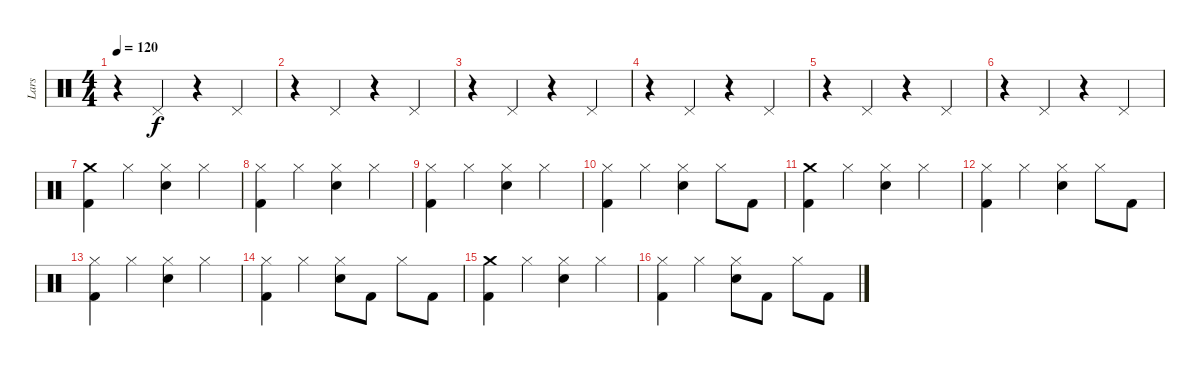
\track ("Lars" "Lars") {instrument percussion}
\staff {score}
\articulation defaults
\ts (4 4)
\tempo 120
\clef neutral
\ks c
r.4{dy f} "Pedal Hi-Hat (hit)".4 r.4 "Pedal Hi-Hat (hit)".4 |
r.4 "Pedal Hi-Hat (hit)".4 r.4 "Pedal Hi-Hat (hit)".4 |
r.4 "Pedal Hi-Hat (hit)".4 r.4 "Pedal Hi-Hat (hit)".4 |
r.4 "Pedal Hi-Hat (hit)".4 r.4 "Pedal Hi-Hat (hit)".4 |
r.4 "Pedal Hi-Hat (hit)".4 r.4 "Pedal Hi-Hat (hit)".4 |
r.4 "Pedal Hi-Hat (hit)".4 r.4 "Pedal Hi-Hat (hit)".4 |
("Kick (hit) 2" "Crash medium (hit)").4 "Hi-Hat (closed)".4 ("Snare (hit) 2" "Hi-Hat (closed)").4 "Hi-Hat (closed)".4 |
("Kick (hit) 2" "Hi-Hat (closed)").4 "Hi-Hat (closed)".4 ("Snare (hit) 2" "Hi-Hat (closed)").4 "Hi-Hat (closed)".4 |
("Kick (hit) 2" "Hi-Hat (closed)").4 "Hi-Hat (closed)".4 ("Snare (hit) 2" "Hi-Hat (closed)").4 "Hi-Hat (closed)".4 |
("Kick (hit) 2" "Hi-Hat (closed)").4 "Hi-Hat (closed)".4 ("Snare (hit) 2" "Hi-Hat (closed)").4 "Hi-Hat (closed)".8 "Kick (hit) 2".8 |
("Crash medium (hit)" "Kick (hit) 2").4 "Hi-Hat (closed)".4 ("Snare (hit) 2" "Hi-Hat (closed)").4 "Hi-Hat (closed)".4 |
("Kick (hit) 2" "Hi-Hat (closed)").4 "Hi-Hat (closed)".4 ("Snare (hit) 2" "Hi-Hat (closed)").4 "Hi-Hat (closed)".8 "Kick (hit) 2".8 |
("Kick (hit) 2" "Hi-Hat (closed)").4 "Hi-Hat (closed)".4 ("Snare (hit) 2" "Hi-Hat (closed)").4 "Hi-Hat (closed)".4 |
("Kick (hit) 2" "Hi-Hat (closed)").4 "Hi-Hat (closed)".4 ("Snare (hit) 2" "Hi-Hat (closed)").8 "Kick (hit) 2".8 "Hi-Hat (closed)".8 "Kick (hit) 2".8 |
("Crash medium (hit)" "Kick (hit) 2").4 "Hi-Hat (closed)".4 ("Snare (hit) 2" "Hi-Hat (closed)").4 "Hi-Hat (closed)".4 |
("Kick (hit) 2" "Hi-Hat (closed)").4 "Hi-Hat (closed)".4 ("Snare (hit) 2" "Hi-Hat (closed)").8 "Kick (hit) 2".8 "Hi-Hat (closed)".8 "Kick (hit) 2".8
